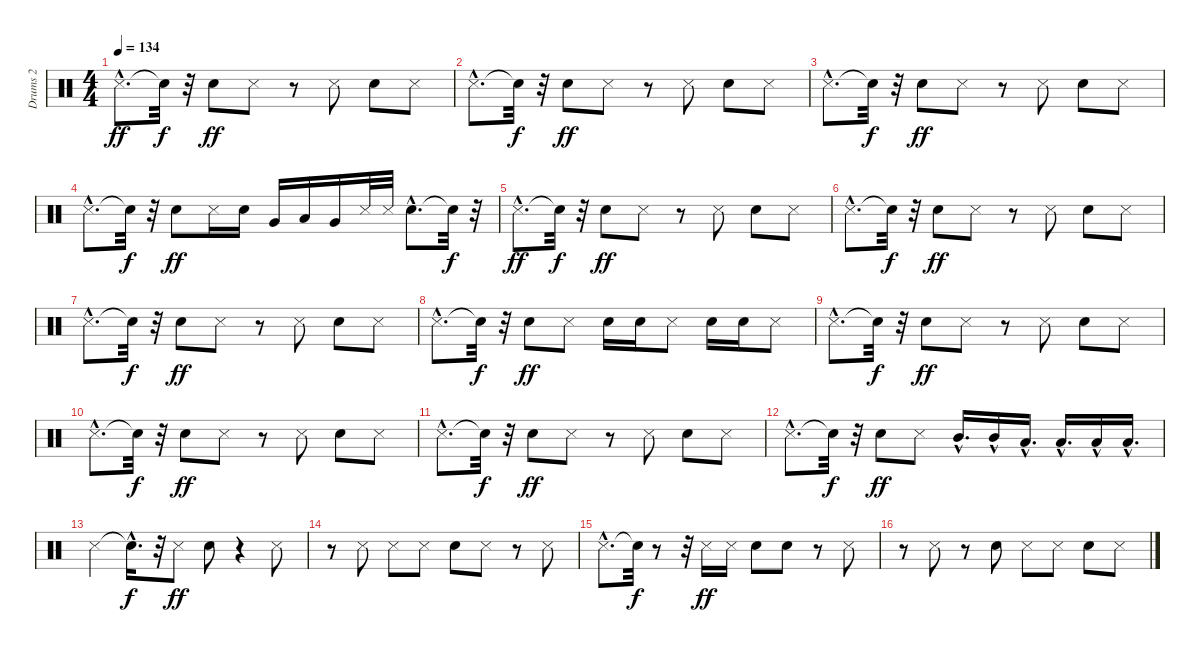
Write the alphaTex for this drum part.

\track ("Drums 2" "Drums 2") {instrument percussion}
\staff {score}
\articulation defaults
\ts (4 4)
\tempo 134
\clef neutral
\ks c "Metronome (hit)"{hac}.8{d dy ff} "Snare (hit)"{t}.32{dy f}
r.32 "Snare (hit) 2".8{dy ff} "Metronome (hit)".8 r.8 "Metronome (hit)".8 "Snare (hit) 2".8 "Metronome (hit)".8 |
"Metronome (hit)"{hac}.8{d} "Snare (hit)"{t}.32{dy f} r.32 "Snare (hit) 2".8{dy ff} "Metronome (hit)".8 r.8 "Metronome (hit)".8 "Snare (hit) 2".8 "Metronome (hit)".8 |
"Metronome (hit)"{hac}.8{d} "Snare (hit)"{t}.32{dy f} r.32 "Snare (hit) 2".8{dy ff} "Metronome (hit)".8 r.8 "Metronome (hit)".8 "Snare (hit) 2".8 "Metronome (hit)".8 |
"Metronome (hit)"{hac}.8{d} "Snare (hit)"{t}.32{dy f} r.32 "Snare (hit) 2".8{dy ff} "Metronome (hit)".16 "Snare (hit) 2".16 "Very Low Tom (hit)".16 "Low Floor Tom (hit)".16 "Very Low Tom (hit)".16 "Metronome (hit)".32 "Metronome (hit)".32 "Snare (hit) 2"{hac}.8{d} "Snare (hit)"{t}.32{dy f} r.32 |
"Metronome (hit)"{hac}.8{d dy ff} "Snare (hit)"{t}.32{dy f} r.32 "Snare (hit) 2".8{dy ff} "Metronome (hit)".8 r.8 "Metronome (hit)".8 "Snare (hit) 2".8 "Metronome (hit)".8 |
"Metronome (hit)"{hac}.8{d} "Snare (hit)"{t}.32{dy f} r.32 "Snare (hit) 2".8{dy ff} "Metronome (hit)".8 r.8 "Metronome (hit)".8 "Snare (hit) 2".8 "Metronome (hit)".8 |
"Metronome (hit)"{hac}.8{d} "Snare (hit)"{t}.32{dy f} r.32 "Snare (hit) 2".8{dy ff} "Metronome (hit)".8 r.8 "Metronome (hit)".8 "Snare (hit) 2".8 "Metronome (hit)".8 |
"Metronome (hit)"{hac}.8{d} "Snare (hit)"{t}.32{dy f} r.32 "Snare (hit) 2".8{dy ff} "Metronome (hit)".8 "Snare (hit) 2".16 "Snare (hit) 2".16 "Metronome (hit)".8 "Snare (hit) 2".16 "Snare (hit) 2".16 "Metronome (hit)".8 |
"Metronome (hit)"{hac}.8{d} "Snare (hit)"{t}.32{dy f} r.32 "Snare (hit) 2".8{dy ff} "Metronome (hit)".8 r.8 "Metronome (hit)".8 "Snare (hit) 2".8 "Metronome (hit)".8 |
"Metronome (hit)"{hac}.8{d} "Snare (hit)"{t}.32{dy f} r.32 "Snare (hit) 2".8{dy ff} "Metronome (hit)".8 r.8 "Metronome (hit)".8 "Snare (hit) 2".8 "Metronome (hit)".8 |
"Metronome (hit)"{hac}.8{d} "Snare (hit)"{t}.32{dy f} r.32 "Snare (hit) 2".8{dy ff} "Metronome (hit)".8 r.8 "Metronome (hit)".8 "Snare (hit) 2".8 "Metronome (hit)".8 |
"Metronome (hit)"{hac}.8{d} "Snare (hit)"{t}.32{dy f} r.32 "Snare (hit) 2".8{dy ff} "Metronome (hit)".8 "Mid Tom (hit)"{hac}.16{d} "Mid Tom (hit)"{hac}.16 "Low Tom (hit)"{hac}.16{d} "Low Tom (hit)"{hac}.16{d} "Low Floor Tom (hit)"{hac}.16 "Low Floor Tom (hit)"{hac}.16{d} |
"Metronome (hit)".4 "Snare (hit)"{hac t}.16{d dy f} r.32 "Metronome (hit)".8{dy ff} "Snare (hit) 2".8 r.4 "Metronome (hit)".8 |
r.8 "Metronome (hit)".8 "Metronome (hit)".8 "Metronome (hit)".8 "Snare (hit) 2".8 "Metronome (hit)".8 r.8 "Metronome (hit)".8 |
"Metronome (hit)"{hac}.8{d} "Snare (hit)"{t}.32{dy f} r.8 r.32 "Metronome (hit)".16{dy ff} "Metronome (hit)".16 "Snare (hit) 2".8 "Snare (hit) 2".8 r.8 "Metronome (hit)".8 |
r.8 "Metronome (hit)".8 r.8 "Snare (hit) 2".8 "Metronome (hit)".8 "Metronome (hit)".8 "Snare (hit) 2".8 "Metronome (hit)".8
